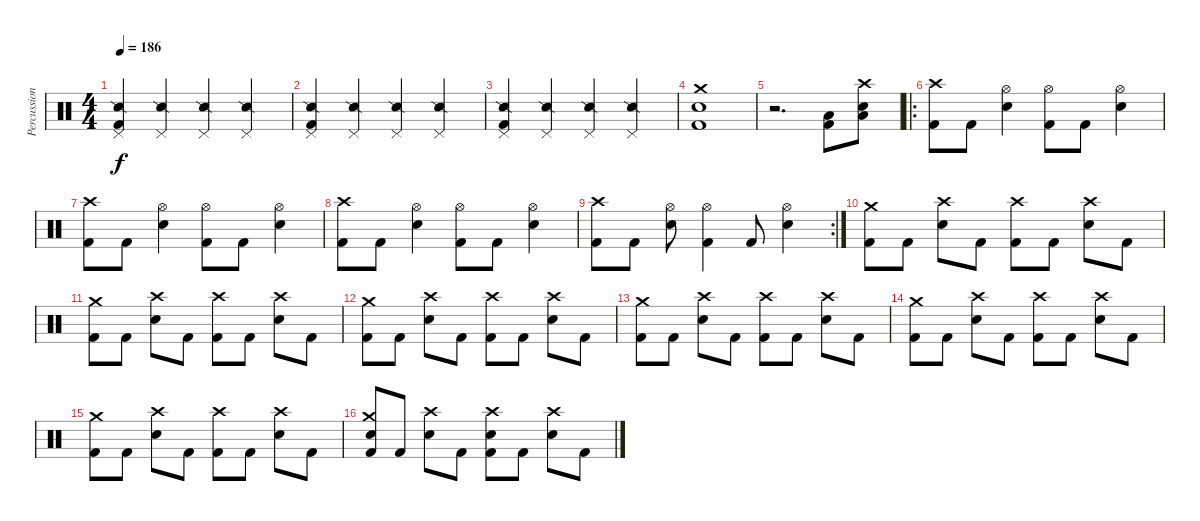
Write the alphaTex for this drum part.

\track ("Percussion" "Percussion") {instrument percussion}
\staff {score}
\articulation defaults
\ts (4 4)
\tempo 186
\clef neutral
\ks c
("Kick (hit) 2" "Pedal Hi-Hat (hit)" "Snare (side stick) 2").4{dy f} ("Pedal Hi-Hat (hit)" "Snare (side stick) 2").4 ("Pedal Hi-Hat (hit)" "Snare (side stick) 2").4 ("Pedal Hi-Hat (hit)" "Snare (side stick) 2").4 |
("Kick (hit) 2" "Pedal Hi-Hat (hit)" "Snare (side stick) 2").4 ("Pedal Hi-Hat (hit)" "Snare (side stick) 2").4 ("Pedal Hi-Hat (hit)" "Snare (side stick) 2").4 ("Pedal Hi-Hat (hit)" "Snare (side stick) 2").4 |
("Kick (hit) 2" "Pedal Hi-Hat (hit)" "Snare (side stick) 2").4 ("Pedal Hi-Hat (hit)" "Snare (side stick) 2").4 ("Pedal Hi-Hat (hit)" "Snare (side stick) 2").4 ("Pedal Hi-Hat (hit)" "Snare (side stick) 2").4 |
("Crash medium (hit)" "Kick (hit) 2" "Electric Snare (hit)").1 |
r.2{d} ("Low Tom (hit)" "Kick (hit) 2").8 ("Crash high (hit)" "Low Tom (hit)" "Electric Snare (hit)").8 |
\ro
("Crash high (hit)" "Kick (hit) 2").8 "Kick (hit) 2".8 ("Hi-Hat (open)" "Electric Snare (hit)").4 ("Hi-Hat (open)" "Kick (hit) 2").8 "Kick (hit) 2".8 ("Hi-Hat (open)" "Electric Snare (hit)").4 |
("Crash high (hit)" "Kick (hit) 2").8 "Kick (hit) 2".8 ("Hi-Hat (open)" "Electric Snare (hit)").4 ("Hi-Hat (open)" "Kick (hit) 2").8 "Kick (hit) 2".8 ("Hi-Hat (open)" "Electric Snare (hit)").4 |
("Crash high (hit)" "Kick (hit) 2").8 "Kick (hit) 2".8 ("Hi-Hat (open)" "Electric Snare (hit)").4 ("Hi-Hat (open)" "Kick (hit) 2").8 "Kick (hit) 2".8 ("Hi-Hat (open)" "Electric Snare (hit)").4 |
\rc 2
("Crash high (hit)" "Kick (hit) 2").8 "Kick (hit) 2".8 ("Hi-Hat (open)" "Electric Snare (hit)").8 ("Hi-Hat (open)" "Kick (hit) 2").4 "Kick (hit) 2".8 ("Hi-Hat (open)" "Electric Snare (hit)").4 |
("Crash medium (hit)" "Kick (hit) 2").8 "Kick (hit) 2".8 ("Crash high (hit)" "Electric Snare (hit)").8 "Kick (hit) 2".8 ("Crash high (hit)" "Kick (hit) 2").8 "Kick (hit) 2".8 ("Crash high (hit)" "Electric Snare (hit)").8 "Kick (hit) 2".8 |
("Crash medium (hit)" "Kick (hit) 2").8 "Kick (hit) 2".8 ("Crash high (hit)" "Electric Snare (hit)").8 "Kick (hit) 2".8 ("Crash high (hit)" "Kick (hit) 2").8 "Kick (hit) 2".8 ("Crash high (hit)" "Electric Snare (hit)").8 "Kick (hit) 2".8 |
("Crash medium (hit)" "Kick (hit) 2").8 "Kick (hit) 2".8 ("Crash high (hit)" "Electric Snare (hit)").8 "Kick (hit) 2".8 ("Crash high (hit)" "Kick (hit) 2").8 "Kick (hit) 2".8 ("Crash high (hit)" "Electric Snare (hit)").8 "Kick (hit) 2".8 |
("Crash medium (hit)" "Kick (hit) 2").8 "Kick (hit) 2".8 ("Crash high (hit)" "Electric Snare (hit)").8 "Kick (hit) 2".8 ("Crash high (hit)" "Kick (hit) 2").8 "Kick (hit) 2".8 ("Crash high (hit)" "Electric Snare (hit)").8 "Kick (hit) 2".8 |
("Crash medium (hit)" "Kick (hit) 2").8 "Kick (hit) 2".8 ("Crash high (hit)" "Electric Snare (hit)").8 "Kick (hit) 2".8 ("Crash high (hit)" "Kick (hit) 2").8 "Kick (hit) 2".8 ("Crash high (hit)" "Electric Snare (hit)").8 "Kick (hit) 2".8 |
("Crash medium (hit)" "Kick (hit) 2").8 "Kick (hit) 2".8 ("Crash high (hit)" "Electric Snare (hit)").8 "Kick (hit) 2".8 ("Crash high (hit)" "Kick (hit) 2").8 "Kick (hit) 2".8 ("Crash high (hit)" "Electric Snare (hit)").8 "Kick (hit) 2".8 |
("Crash medium (hit)" "Electric Snare (hit)" "Kick (hit) 2").8 "Kick (hit) 2".8 ("Crash high (hit)" "Electric Snare (hit)").8 "Kick (hit) 2".8 ("Crash high (hit)" "Electric Snare (hit)" "Kick (hit) 2").8 "Kick (hit) 2".8 ("Crash high (hit)" "Electric Snare (hit)").8 "Kick (hit) 2".8
